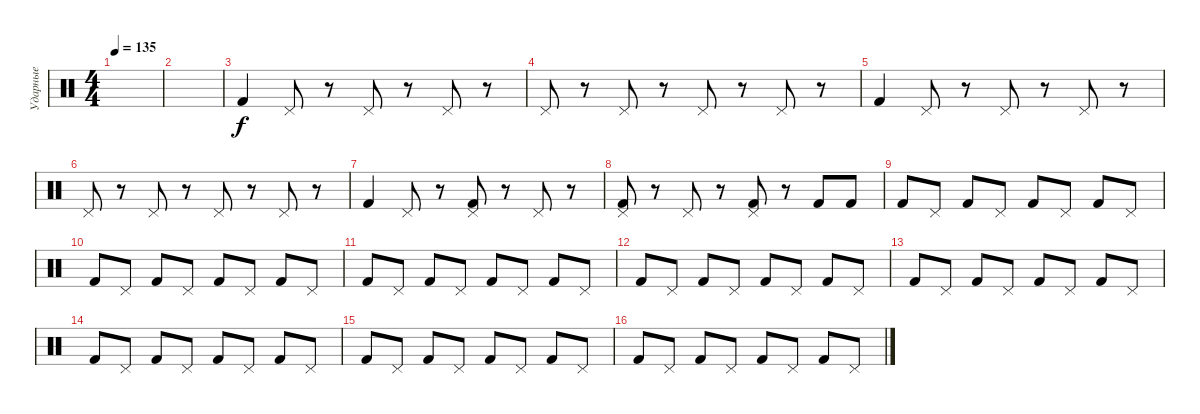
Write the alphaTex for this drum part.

\track ("Ударные" "Ударные") {instrument percussion}
\staff {score}
\articulation defaults
\ts (4 4)
\tempo 135
\clef neutral
\ks c
|
|
"Kick (hit) 2".4 "Pedal Hi-Hat (hit)".8 r.8 "Pedal Hi-Hat (hit)".8 r.8 "Pedal Hi-Hat (hit)".8 r.8 |
"Pedal Hi-Hat (hit)".8 r.8 "Pedal Hi-Hat (hit)".8 r.8 "Pedal Hi-Hat (hit)".8 r.8 "Pedal Hi-Hat (hit)".8 r.8 |
"Kick (hit) 2".4 "Pedal Hi-Hat (hit)".8 r.8 "Pedal Hi-Hat (hit)".8 r.8 "Pedal Hi-Hat (hit)".8 r.8 |
"Pedal Hi-Hat (hit)".8 r.8 "Pedal Hi-Hat (hit)".8 r.8 "Pedal Hi-Hat (hit)".8 r.8 "Pedal Hi-Hat (hit)".8 r.8 |
"Kick (hit) 2".4 "Pedal Hi-Hat (hit)".8 r.8 ("Pedal Hi-Hat (hit)" "Kick (hit) 2").8 r.8 "Pedal Hi-Hat (hit)".8 r.8 |
("Pedal Hi-Hat (hit)" "Kick (hit) 2").8 r.8 "Pedal Hi-Hat (hit)".8 r.8 ("Pedal Hi-Hat (hit)" "Kick (hit) 2").8 r.8 "Kick (hit) 2".8 "Kick (hit) 2".8 |
"Kick (hit) 2".8 "Pedal Hi-Hat (hit)".8 "Kick (hit) 2".8 "Pedal Hi-Hat (hit)".8 "Kick (hit) 2".8 "Pedal Hi-Hat (hit)".8 "Kick (hit) 2".8 "Pedal Hi-Hat (hit)".8 |
"Kick (hit) 2".8 "Pedal Hi-Hat (hit)".8 "Kick (hit) 2".8 "Pedal Hi-Hat (hit)".8 "Kick (hit) 2".8 "Pedal Hi-Hat (hit)".8 "Kick (hit) 2".8 "Pedal Hi-Hat (hit)".8 |
"Kick (hit) 2".8 "Pedal Hi-Hat (hit)".8 "Kick (hit) 2".8 "Pedal Hi-Hat (hit)".8 "Kick (hit) 2".8 "Pedal Hi-Hat (hit)".8 "Kick (hit) 2".8 "Pedal Hi-Hat (hit)".8 |
"Kick (hit) 2".8 "Pedal Hi-Hat (hit)".8 "Kick (hit) 2".8 "Pedal Hi-Hat (hit)".8 "Kick (hit) 2".8 "Pedal Hi-Hat (hit)".8 "Kick (hit) 2".8 "Pedal Hi-Hat (hit)".8 |
"Kick (hit) 2".8 "Pedal Hi-Hat (hit)".8 "Kick (hit) 2".8 "Pedal Hi-Hat (hit)".8 "Kick (hit) 2".8 "Pedal Hi-Hat (hit)".8 "Kick (hit) 2".8 "Pedal Hi-Hat (hit)".8 |
"Kick (hit) 2".8 "Pedal Hi-Hat (hit)".8 "Kick (hit) 2".8 "Pedal Hi-Hat (hit)".8 "Kick (hit) 2".8 "Pedal Hi-Hat (hit)".8 "Kick (hit) 2".8 "Pedal Hi-Hat (hit)".8 |
"Kick (hit) 2".8 "Pedal Hi-Hat (hit)".8 "Kick (hit) 2".8 "Pedal Hi-Hat (hit)".8 "Kick (hit) 2".8 "Pedal Hi-Hat (hit)".8 "Kick (hit) 2".8 "Pedal Hi-Hat (hit)".8 |
"Kick (hit) 2".8 "Pedal Hi-Hat (hit)".8 "Kick (hit) 2".8 "Pedal Hi-Hat (hit)".8 "Kick (hit) 2".8 "Pedal Hi-Hat (hit)".8 "Kick (hit) 2".8 "Pedal Hi-Hat (hit)".8
